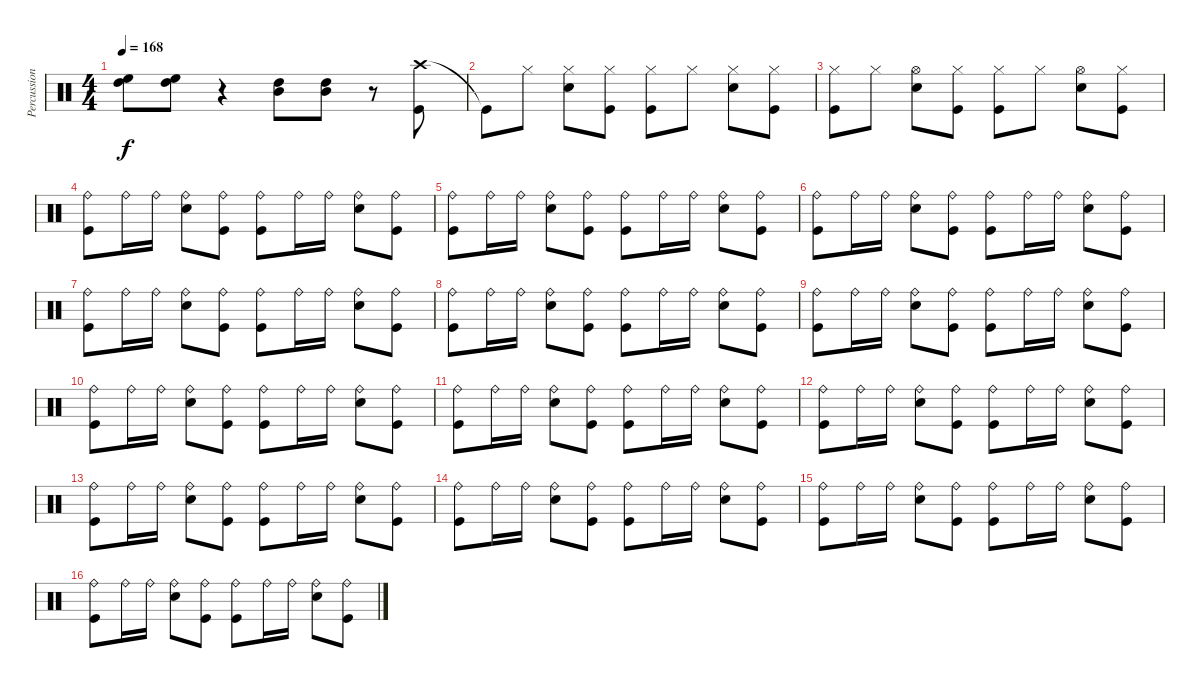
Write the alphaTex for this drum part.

\track ("Percussions" "Percussion") {instrument percussion}
\staff {score}
\articulation defaults
\ts (4 4)
\tempo 168
\clef neutral
\ks c
("High Floor Tom (hit)" "High Tom (hit)").8{dy f} ("High Floor Tom (hit)" "High Tom (hit)").8 r.4 ("High Tom (hit)" "Mid Tom (hit)").8 ("High Tom (hit)" "Mid Tom (hit)").8 r.8 ("Crash high (hit)" "Kick (hit)").8 |
"Kick (hit)"{t}.8 "Hi-Hat (closed)".8 ("Hi-Hat (closed)" "Snare (hit) 2").8 ("Hi-Hat (closed)" "Kick (hit)").8 ("Hi-Hat (closed)" "Kick (hit)").8 "Hi-Hat (closed)".8 ("Hi-Hat (closed)" "Snare (hit) 2").8 ("Hi-Hat (closed)" "Kick (hit)").8 |
("Hi-Hat (closed)" "Kick (hit)").8 "Hi-Hat (closed)".8 ("Hi-Hat (open)" "Snare (hit) 2").8 ("Hi-Hat (closed)" "Kick (hit)").8 ("Hi-Hat (closed)" "Kick (hit)").8 "Hi-Hat (closed)".8 ("Hi-Hat (open)" "Snare (hit) 2").8 ("Hi-Hat (closed)" "Kick (hit)").8 |
("Ride (bell)" "Kick (hit)").8 "Ride (bell)".16 "Ride (bell)".16 ("Ride (bell)" "Snare (hit) 2").8 ("Ride (bell)" "Kick (hit)").8 ("Ride (bell)" "Kick (hit)").8 "Ride (bell)".16 "Ride (bell)".16 ("Ride (bell)" "Snare (hit) 2").8 ("Ride (bell)" "Kick (hit)").8 |
("Ride (bell)" "Kick (hit)").8 "Ride (bell)".16 "Ride (bell)".16 ("Ride (bell)" "Snare (hit) 2").8 ("Ride (bell)" "Kick (hit)").8 ("Ride (bell)" "Kick (hit)").8 "Ride (bell)".16 "Ride (bell)".16 ("Ride (bell)" "Snare (hit) 2").8 ("Ride (bell)" "Kick (hit)").8 |
("Ride (bell)" "Kick (hit)").8 "Ride (bell)".16 "Ride (bell)".16 ("Ride (bell)" "Snare (hit) 2").8 ("Ride (bell)" "Kick (hit)").8 ("Ride (bell)" "Kick (hit)").8 "Ride (bell)".16 "Ride (bell)".16 ("Ride (bell)" "Snare (hit) 2").8 ("Ride (bell)" "Kick (hit)").8 |
("Ride (bell)" "Kick (hit)").8 "Ride (bell)".16 "Ride (bell)".16 ("Ride (bell)" "Snare (hit) 2").8 ("Ride (bell)" "Kick (hit)").8 ("Ride (bell)" "Kick (hit)").8 "Ride (bell)".16 "Ride (bell)".16 ("Ride (bell)" "Snare (hit) 2").8 ("Ride (bell)" "Kick (hit)").8 |
("Ride (bell)" "Kick (hit)").8 "Ride (bell)".16 "Ride (bell)".16 ("Ride (bell)" "Snare (hit) 2").8 ("Ride (bell)" "Kick (hit)").8 ("Ride (bell)" "Kick (hit)").8 "Ride (bell)".16 "Ride (bell)".16 ("Ride (bell)" "Snare (hit) 2").8 ("Ride (bell)" "Kick (hit)").8 |
("Ride (bell)" "Kick (hit)").8 "Ride (bell)".16 "Ride (bell)".16 ("Ride (bell)" "Snare (hit) 2").8 ("Ride (bell)" "Kick (hit)").8 ("Ride (bell)" "Kick (hit)").8 "Ride (bell)".16 "Ride (bell)".16 ("Ride (bell)" "Snare (hit) 2").8 ("Ride (bell)" "Kick (hit)").8 |
("Ride (bell)" "Kick (hit)").8 "Ride (bell)".16 "Ride (bell)".16 ("Ride (bell)" "Snare (hit) 2").8 ("Ride (bell)" "Kick (hit)").8 ("Ride (bell)" "Kick (hit)").8 "Ride (bell)".16 "Ride (bell)".16 ("Ride (bell)" "Snare (hit) 2").8 ("Ride (bell)" "Kick (hit)").8 |
("Ride (bell)" "Kick (hit)").8 "Ride (bell)".16 "Ride (bell)".16 ("Ride (bell)" "Snare (hit) 2").8 ("Ride (bell)" "Kick (hit)").8 ("Ride (bell)" "Kick (hit)").8 "Ride (bell)".16 "Ride (bell)".16 ("Ride (bell)" "Snare (hit) 2").8 ("Ride (bell)" "Kick (hit)").8 |
("Ride (bell)" "Kick (hit)").8 "Ride (bell)".16 "Ride (bell)".16 ("Ride (bell)" "Snare (hit) 2").8 ("Ride (bell)" "Kick (hit)").8 ("Ride (bell)" "Kick (hit)").8 "Ride (bell)".16 "Ride (bell)".16 ("Ride (bell)" "Snare (hit) 2").8 ("Ride (bell)" "Kick (hit)").8 |
("Ride (bell)" "Kick (hit)").8 "Ride (bell)".16 "Ride (bell)".16 ("Ride (bell)" "Snare (hit) 2").8 ("Ride (bell)" "Kick (hit)").8 ("Ride (bell)" "Kick (hit)").8 "Ride (bell)".16 "Ride (bell)".16 ("Ride (bell)" "Snare (hit) 2").8 ("Ride (bell)" "Kick (hit)").8 |
("Ride (bell)" "Kick (hit)").8 "Ride (bell)".16 "Ride (bell)".16 ("Ride (bell)" "Snare (hit) 2").8 ("Ride (bell)" "Kick (hit)").8 ("Ride (bell)" "Kick (hit)").8 "Ride (bell)".16 "Ride (bell)".16 ("Ride (bell)" "Snare (hit) 2").8 ("Ride (bell)" "Kick (hit)").8 |
("Ride (bell)" "Kick (hit)").8 "Ride (bell)".16 "Ride (bell)".16 ("Ride (bell)" "Snare (hit) 2").8 ("Ride (bell)" "Kick (hit)").8 ("Ride (bell)" "Kick (hit)").8 "Ride (bell)".16 "Ride (bell)".16 ("Ride (bell)" "Snare (hit) 2").8 ("Ride (bell)" "Kick (hit)").8 |
("Ride (bell)" "Kick (hit)").8 "Ride (bell)".16 "Ride (bell)".16 ("Ride (bell)" "Snare (hit) 2").8 ("Ride (bell)" "Kick (hit)").8 ("Ride (bell)" "Kick (hit)").8 "Ride (bell)".16 "Ride (bell)".16 ("Ride (bell)" "Snare (hit) 2").8 ("Ride (bell)" "Kick (hit)").8
